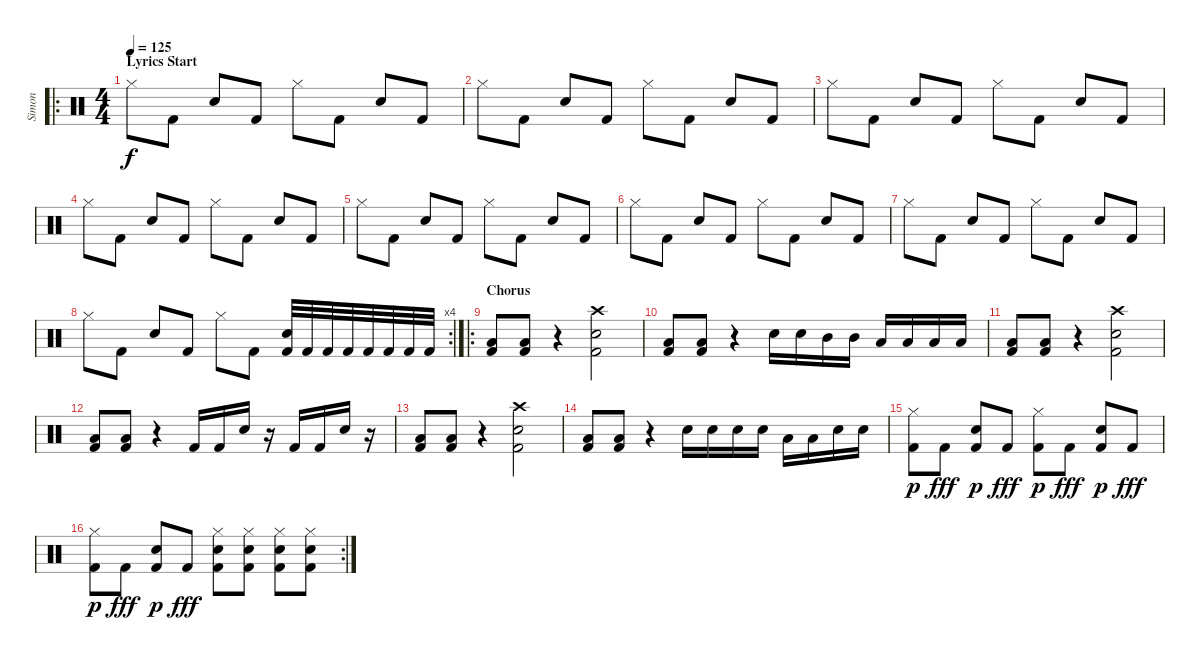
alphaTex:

\track ("Simon" "Simon") {instrument percussion}
\staff {score}
\articulation defaults
\ro
\ts (4 4)
\section ("" "Lyrics Start")
\tempo 125
\clef neutral
\ks c "Hi-Hat (closed)".8{dy f} "Kick (hit) 2".8 "Snare (hit) 2".8 "Kick (hit) 2".8 "Hi-Hat (closed)".8 "Kick (hit) 2".8 "Snare (hit) 2".8 "Kick (hit) 2".8
|
"Hi-Hat (closed)".8 "Kick (hit) 2".8 "Snare (hit) 2".8 "Kick (hit) 2".8 "Hi-Hat (closed)".8 "Kick (hit) 2".8 "Snare (hit) 2".8 "Kick (hit) 2".8 |
"Hi-Hat (closed)".8 "Kick (hit) 2".8 "Snare (hit) 2".8 "Kick (hit) 2".8 "Hi-Hat (closed)".8 "Kick (hit) 2".8 "Snare (hit) 2".8 "Kick (hit) 2".8 |
"Hi-Hat (closed)".8 "Kick (hit) 2".8 "Snare (hit) 2".8 "Kick (hit) 2".8 "Hi-Hat (closed)".8 "Kick (hit) 2".8 "Snare (hit) 2".8 "Kick (hit) 2".8 |
"Hi-Hat (closed)".8 "Kick (hit) 2".8 "Snare (hit) 2".8 "Kick (hit) 2".8 "Hi-Hat (closed)".8 "Kick (hit) 2".8 "Snare (hit) 2".8 "Kick (hit) 2".8 |
"Hi-Hat (closed)".8 "Kick (hit) 2".8 "Snare (hit) 2".8 "Kick (hit) 2".8 "Hi-Hat (closed)".8 "Kick (hit) 2".8 "Snare (hit) 2".8 "Kick (hit) 2".8 |
"Hi-Hat (closed)".8 "Kick (hit) 2".8 "Snare (hit) 2".8 "Kick (hit) 2".8 "Hi-Hat (closed)".8 "Kick (hit) 2".8 "Snare (hit) 2".8 "Kick (hit) 2".8 |
\rc 4 "Hi-Hat (closed)".8 "Kick (hit) 2".8 "Snare (hit) 2".8 "Kick (hit) 2".8 "Hi-Hat (closed)".8 "Kick (hit) 2".8
("Snare (hit) 2" "Kick (hit) 2").32 "Kick (hit) 2".32 "Kick (hit) 2".32 "Kick (hit) 2".32 "Kick (hit) 2".32 "Kick (hit) 2".32 "Kick (hit) 2".32 "Kick (hit) 2".32 |
\ro
\section ("" "Chorus")
("Low Floor Tom (hit)" "Kick (hit) 2").8 ("Low Floor Tom (hit)" "Kick (hit) 2").8 r.4 ("Crash high (hit)" "Snare (hit) 2" "Kick (hit) 2").2 |
("Low Floor Tom (hit)" "Kick (hit) 2").8 ("Low Floor Tom (hit)" "Kick (hit) 2").8 r.4 "Snare (hit) 2".16 "Snare (hit) 2".16 "Mid Tom (hit)".16 "Mid Tom (hit)".16 "Low Tom (hit)".16 "Low Tom (hit)".16 "Low Floor Tom (hit)".16 "Low Floor Tom (hit)".16 |
("Low Floor Tom (hit)" "Kick (hit) 2").8 ("Low Floor Tom (hit)" "Kick (hit) 2").8 r.4 ("Crash high (hit)" "Snare (hit) 2" "Kick (hit) 2").2 |
("Low Floor Tom (hit)" "Kick (hit) 2").8 ("Low Floor Tom (hit)" "Kick (hit) 2").8 r.4 "Kick (hit) 2".16 "Kick (hit) 2".16 "Snare (hit) 2".16 r.16 "Kick (hit) 2".16 "Kick (hit) 2".16 "Snare (hit) 2".16 r.16 |
("Low Floor Tom (hit)" "Kick (hit) 2").8 ("Low Floor Tom (hit)" "Kick (hit) 2").8 r.4 ("Crash high (hit)" "Snare (hit) 2" "Kick (hit) 2").2 |
("Low Floor Tom (hit)" "Kick (hit) 2").8 ("Low Floor Tom (hit)" "Kick (hit) 2").8 r.4 "Snare (hit) 2".16 "Snare (hit) 2".16 "Snare (hit) 2".16 "Snare (hit) 2".16 "Low Floor Tom (hit)".16 "Low Floor Tom (hit)".16 "Snare (hit) 2".16 "Snare (hit) 2".16 |
("Hi-Hat (closed)" "Kick (hit) 2").8{dy p} "Kick (hit) 2".8{dy fff} ("Snare (hit) 2" "Kick (hit) 2").8{dy p} "Kick (hit) 2".8{dy fff} ("Hi-Hat (closed)" "Kick (hit) 2").8{dy p} "Kick (hit) 2".8{dy fff} ("Snare (hit) 2" "Kick (hit) 2").8{dy p} "Kick (hit) 2".8{dy fff} |
\rc 2
("Hi-Hat (closed)" "Kick (hit) 2").8{dy p} "Kick (hit) 2".8{dy fff} ("Snare (hit) 2" "Kick (hit) 2").8{dy p} "Kick (hit) 2".8{dy fff} ("Hi-Hat (closed)" "Snare (hit) 2" "Kick (hit) 2").8 ("Hi-Hat (closed)" "Snare (hit) 2" "Kick (hit) 2").8 ("Hi-Hat (closed)" "Snare (hit) 2" "Kick (hit) 2").8 ("Hi-Hat (closed)" "Snare (hit) 2" "Kick (hit) 2").8
